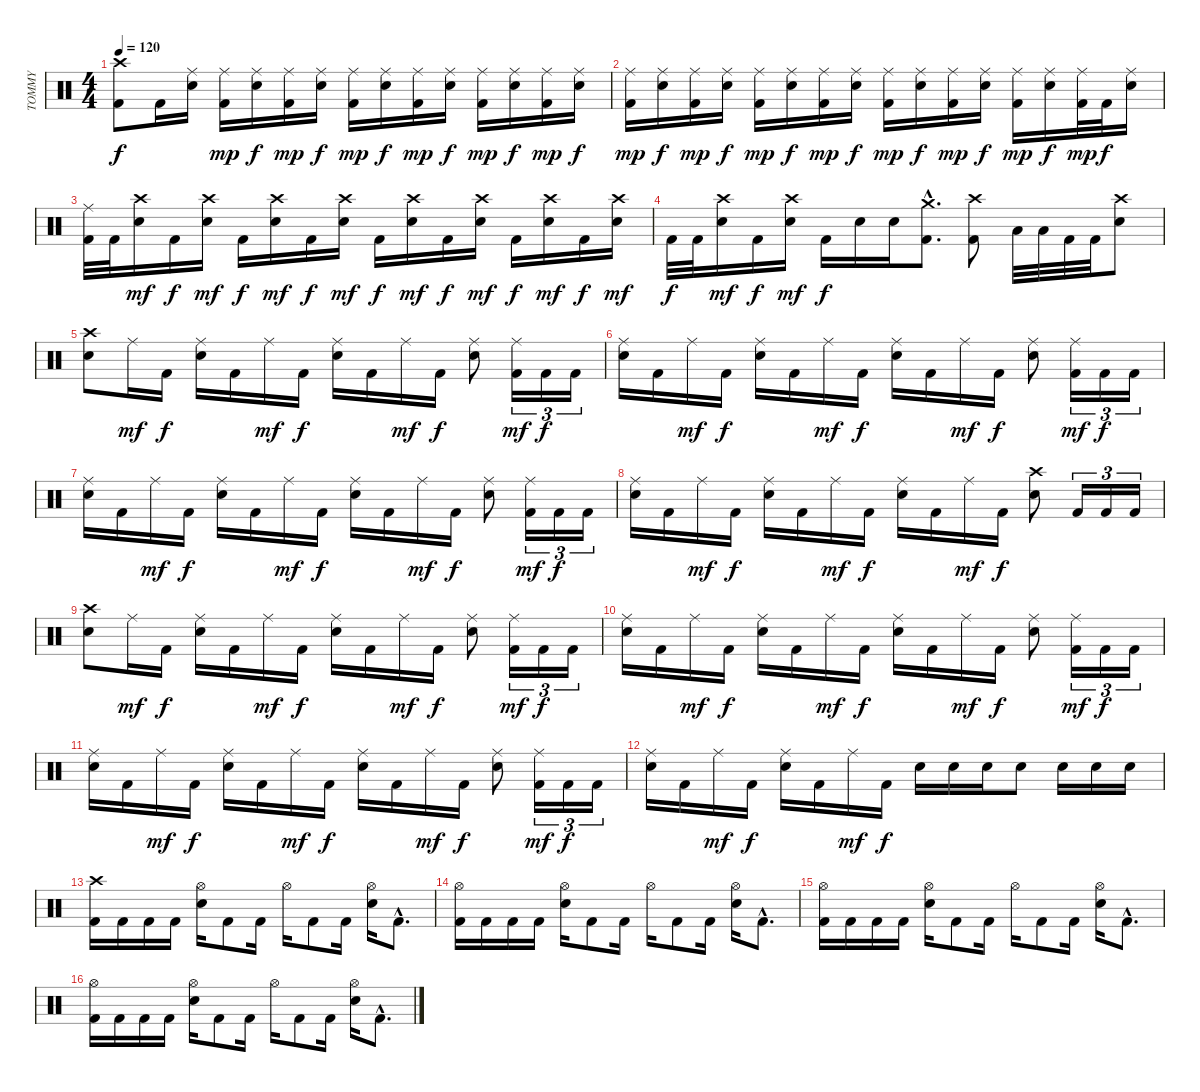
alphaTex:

\track ("TOMMY" "TOMMY") {instrument percussion}
\staff {score}
\articulation defaults
\ts (4 4)
\tempo 120
\clef neutral
\ks c
("Kick (hit) 2" "Crash high (hit)").8{dy f} "Kick (hit) 2".16 ("Snare (hit) 2" "Ride (middle)").16 ("Kick (hit) 2" "Ride (middle)").16{dy mp} ("Snare (hit) 2" "Ride (middle)").16{dy f} ("Kick (hit) 2" "Ride (middle)").16{dy mp} ("Snare (hit) 2" "Ride (middle)").16{dy f} ("Kick (hit) 2" "Ride (middle)").16{dy mp} ("Snare (hit) 2" "Ride (middle)").16{dy f} ("Kick (hit) 2" "Ride (middle)").16{dy mp} ("Snare (hit) 2" "Ride (middle)").16{dy f} ("Kick (hit) 2" "Ride (middle)").16{dy mp} ("Snare (hit) 2" "Ride (middle)").16{dy f} ("Kick (hit) 2" "Ride (middle)").16{dy mp} ("Snare (hit) 2" "Ride (middle)").16{dy f} |
("Kick (hit) 2" "Ride (middle)").16{dy mp} ("Snare (hit) 2" "Ride (middle)").16{dy f} ("Kick (hit) 2" "Ride (middle)").16{dy mp} ("Snare (hit) 2" "Ride (middle)").16{dy f} ("Kick (hit) 2" "Ride (middle)").16{dy mp} ("Snare (hit) 2" "Ride (middle)").16{dy f} ("Kick (hit) 2" "Ride (middle)").16{dy mp} ("Snare (hit) 2" "Ride (middle)").16{dy f} ("Kick (hit) 2" "Ride (middle)").16{dy mp} ("Snare (hit) 2" "Ride (middle)").16{dy f} ("Kick (hit) 2" "Ride (middle)").16{dy mp} ("Snare (hit) 2" "Ride (middle)").16{dy f} ("Kick (hit) 2" "Ride (middle)").16{dy mp} ("Snare (hit) 2" "Ride (middle)").16{dy f} ("Kick (hit) 2" "Ride (middle)").32{dy mp} "Kick (hit) 2".32{dy f} ("Snare (hit) 2" "Ride (middle)").16 |
("Kick (hit) 2" "Ride (middle)").32 "Kick (hit) 2".32 ("Snare (hit) 2" "Crash high (hit)").16{dy mf} "Kick (hit) 2".16{dy f} ("Snare (hit) 2" "Crash high (hit)").16{dy mf} "Kick (hit) 2".16{dy f} ("Snare (hit) 2" "Crash high (hit)").16{dy mf} "Kick (hit) 2".16{dy f} ("Snare (hit) 2" "Crash high (hit)").16{dy mf} "Kick (hit) 2".16{dy f} ("Snare (hit) 2" "Crash high (hit)").16{dy mf} "Kick (hit) 2".16{dy f} ("Snare (hit) 2" "Crash high (hit)").16{dy mf} "Kick (hit) 2".16{dy f} ("Snare (hit) 2" "Crash high (hit)").16{dy mf} "Kick (hit) 2".16{dy f} ("Snare (hit) 2" "Crash high (hit)").16{dy mf} |
"Kick (hit) 2".32{dy f} "Kick (hit) 2".32 ("Snare (hit) 2" "Crash high (hit)").16{dy mf} "Kick (hit) 2".16{dy f} ("Snare (hit) 2" "Crash high (hit)").16{dy mf} "Kick (hit) 2".16{dy f} "Snare (hit) 2".16 "Snare (hit) 2".16 ("Kick (hit) 2"{hac} "Crash medium (hit)"{hac}).8{d} ("Kick (hit) 2" "Crash high (hit)").8 "Low Floor Tom (hit)".32 "Low Floor Tom (hit)".32 "Kick (hit) 2".32 "Kick (hit) 2".32 ("Snare (hit) 2" "Crash high (hit)").8 |
("Snare (hit) 2" "Crash high (hit)").8 "Ride (middle)".16{dy mf} "Kick (hit) 2".16{dy f} ("Snare (hit) 2" "Ride (middle)").16 "Kick (hit) 2".16 "Ride (middle)".16{dy mf} "Kick (hit) 2".16{dy f} ("Snare (hit) 2" "Ride (middle)").16 "Kick (hit) 2".16 "Ride (middle)".16{dy mf} "Kick (hit) 2".16{dy f} ("Snare (hit) 2" "Ride (middle)").8 ("Kick (hit) 2" "Ride (middle)").16{tu (3 2) dy mf} "Kick (hit) 2".16{tu (3 2) dy f} "Kick (hit) 2".16{tu (3 2)} |
("Snare (hit) 2" "Ride (middle)").16 "Kick (hit) 2".16 "Ride (middle)".16{dy mf} "Kick (hit) 2".16{dy f} ("Snare (hit) 2" "Ride (middle)").16 "Kick (hit) 2".16 "Ride (middle)".16{dy mf} "Kick (hit) 2".16{dy f} ("Snare (hit) 2" "Ride (middle)").16 "Kick (hit) 2".16 "Ride (middle)".16{dy mf} "Kick (hit) 2".16{dy f} ("Snare (hit) 2" "Ride (middle)").8 ("Kick (hit) 2" "Ride (middle)").16{tu (3 2) dy mf} "Kick (hit) 2".16{tu (3 2) dy f} "Kick (hit) 2".16{tu (3 2)} |
("Snare (hit) 2" "Ride (middle)").16 "Kick (hit) 2".16 "Ride (middle)".16{dy mf} "Kick (hit) 2".16{dy f} ("Snare (hit) 2" "Ride (middle)").16 "Kick (hit) 2".16 "Ride (middle)".16{dy mf} "Kick (hit) 2".16{dy f} ("Snare (hit) 2" "Ride (middle)").16 "Kick (hit) 2".16 "Ride (middle)".16{dy mf} "Kick (hit) 2".16{dy f} ("Snare (hit) 2" "Ride (middle)").8 ("Kick (hit) 2" "Ride (middle)").16{tu (3 2) dy mf} "Kick (hit) 2".16{tu (3 2) dy f} "Kick (hit) 2".16{tu (3 2)} |
("Snare (hit) 2" "Ride (middle)").16 "Kick (hit) 2".16 "Ride (middle)".16{dy mf} "Kick (hit) 2".16{dy f} ("Snare (hit) 2" "Ride (middle)").16 "Kick (hit) 2".16 "Ride (middle)".16{dy mf} "Kick (hit) 2".16{dy f} ("Snare (hit) 2" "Ride (middle)").16 "Kick (hit) 2".16 "Ride (middle)".16{dy mf} "Kick (hit) 2".16{dy f} ("Snare (hit) 2" "Crash high (hit)").8 "Kick (hit) 2".16{tu (3 2)} "Kick (hit) 2".16{tu (3 2)} "Kick (hit) 2".16{tu (3 2)} |
("Snare (hit) 2" "Crash high (hit)").8 "Ride (middle)".16{dy mf} "Kick (hit) 2".16{dy f} ("Snare (hit) 2" "Ride (middle)").16 "Kick (hit) 2".16 "Ride (middle)".16{dy mf} "Kick (hit) 2".16{dy f} ("Snare (hit) 2" "Ride (middle)").16 "Kick (hit) 2".16 "Ride (middle)".16{dy mf} "Kick (hit) 2".16{dy f} ("Snare (hit) 2" "Ride (middle)").8 ("Kick (hit) 2" "Ride (middle)").16{tu (3 2) dy mf} "Kick (hit) 2".16{tu (3 2) dy f} "Kick (hit) 2".16{tu (3 2)} |
("Snare (hit) 2" "Ride (middle)").16 "Kick (hit) 2".16 "Ride (middle)".16{dy mf} "Kick (hit) 2".16{dy f} ("Snare (hit) 2" "Ride (middle)").16 "Kick (hit) 2".16 "Ride (middle)".16{dy mf} "Kick (hit) 2".16{dy f} ("Snare (hit) 2" "Ride (middle)").16 "Kick (hit) 2".16 "Ride (middle)".16{dy mf} "Kick (hit) 2".16{dy f} ("Snare (hit) 2" "Ride (middle)").8 ("Kick (hit) 2" "Ride (middle)").16{tu (3 2) dy mf} "Kick (hit) 2".16{tu (3 2) dy f} "Kick (hit) 2".16{tu (3 2)} |
("Snare (hit) 2" "Ride (middle)").16 "Kick (hit) 2".16 "Ride (middle)".16{dy mf} "Kick (hit) 2".16{dy f} ("Snare (hit) 2" "Ride (middle)").16 "Kick (hit) 2".16 "Ride (middle)".16{dy mf} "Kick (hit) 2".16{dy f} ("Snare (hit) 2" "Ride (middle)").16 "Kick (hit) 2".16 "Ride (middle)".16{dy mf} "Kick (hit) 2".16{dy f} ("Snare (hit) 2" "Ride (middle)").8 ("Kick (hit) 2" "Ride (middle)").16{tu (3 2) dy mf} "Kick (hit) 2".16{tu (3 2) dy f} "Kick (hit) 2".16{tu (3 2)} |
("Snare (hit) 2" "Ride (middle)").16 "Kick (hit) 2".16 "Ride (middle)".16{dy mf} "Kick (hit) 2".16{dy f} ("Snare (hit) 2" "Ride (middle)").16 "Kick (hit) 2".16 "Ride (middle)".16{dy mf} "Kick (hit) 2".16{dy f} "Snare (hit) 2".16 "Snare (hit) 2".16 "Snare (hit) 2".16 "Snare (hit) 2".8 "Snare (hit) 2".16 "Snare (hit) 2".16 "Snare (hit) 2".16 |
("Kick (hit) 2" "Crash high (hit)").16 "Kick (hit) 2".16 "Kick (hit) 2".16 "Kick (hit) 2".16 ("Snare (hit) 2" "Hi-Hat (open)").16 "Kick (hit) 2".8 "Kick (hit) 2".16 "Hi-Hat (open)".16 "Kick (hit) 2".8 "Kick (hit) 2".16 ("Snare (hit) 2" "Hi-Hat (open)").16 "Kick (hit) 2"{hac}.8{d} |
("Kick (hit) 2" "Hi-Hat (open)").16 "Kick (hit) 2".16 "Kick (hit) 2".16 "Kick (hit) 2".16 ("Snare (hit) 2" "Hi-Hat (open)").16 "Kick (hit) 2".8 "Kick (hit) 2".16 "Hi-Hat (open)".16 "Kick (hit) 2".8 "Kick (hit) 2".16 ("Snare (hit) 2" "Hi-Hat (open)").16 "Kick (hit) 2"{hac}.8{d} |
("Kick (hit) 2" "Hi-Hat (open)").16 "Kick (hit) 2".16 "Kick (hit) 2".16 "Kick (hit) 2".16 ("Snare (hit) 2" "Hi-Hat (open)").16 "Kick (hit) 2".8 "Kick (hit) 2".16 "Hi-Hat (open)".16 "Kick (hit) 2".8 "Kick (hit) 2".16 ("Snare (hit) 2" "Hi-Hat (open)").16 "Kick (hit) 2"{hac}.8{d} |
("Kick (hit) 2" "Hi-Hat (open)").16 "Kick (hit) 2".16 "Kick (hit) 2".16 "Kick (hit) 2".16 ("Snare (hit) 2" "Hi-Hat (open)").16 "Kick (hit) 2".8 "Kick (hit) 2".16 "Hi-Hat (open)".16 "Kick (hit) 2".8 "Kick (hit) 2".16 ("Snare (hit) 2" "Hi-Hat (open)").16 "Kick (hit) 2"{hac}.8{d}
